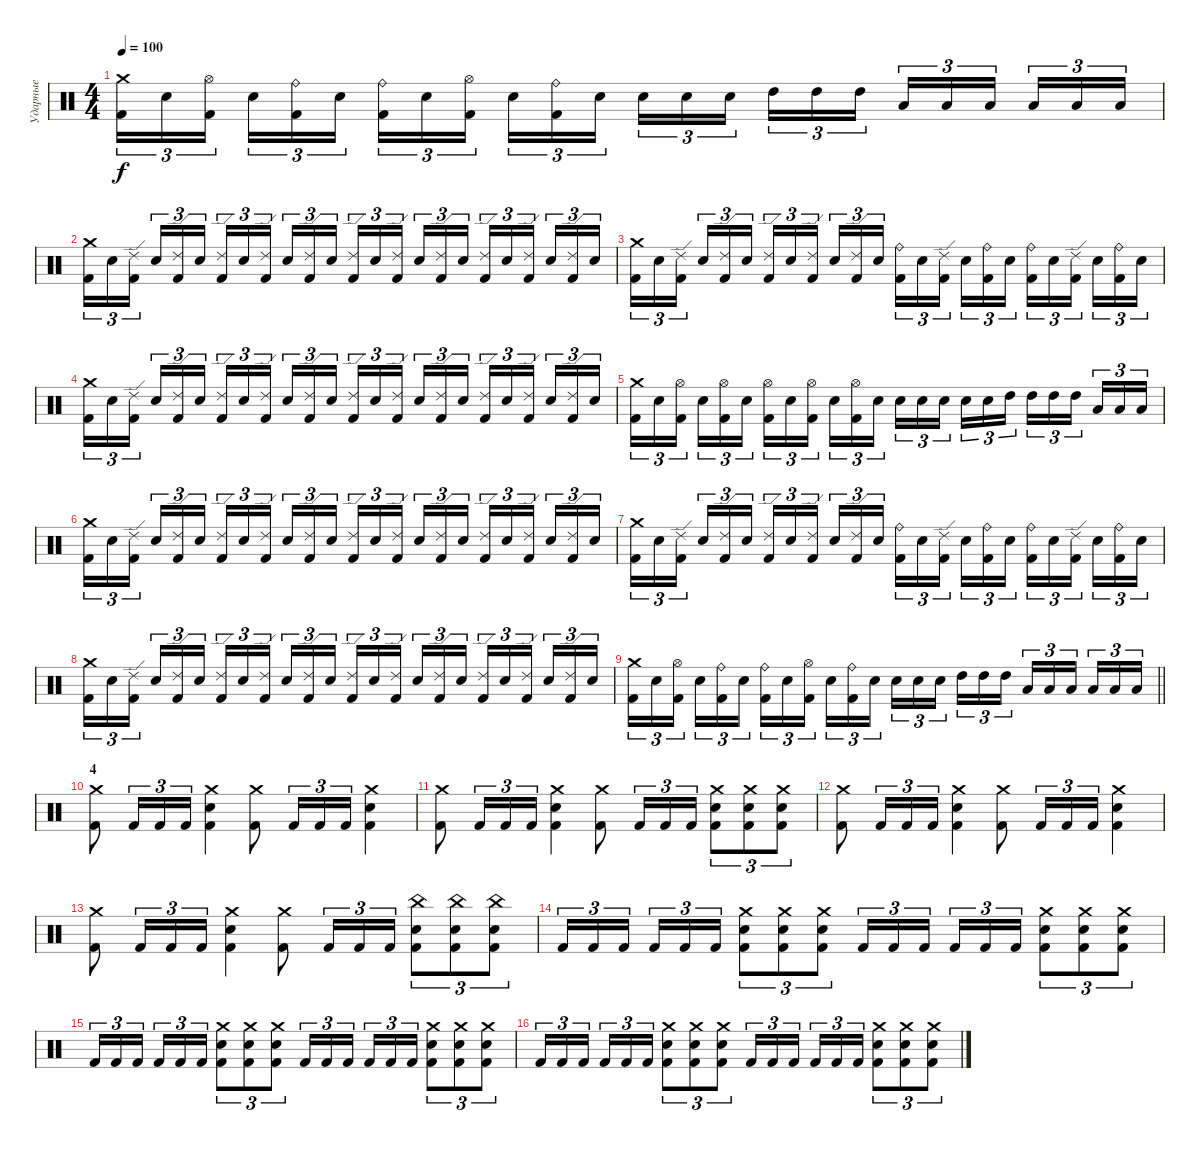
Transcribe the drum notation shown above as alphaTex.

\track ("Ударные" "Ударные") {instrument percussion}
\staff {score}
\articulation defaults
\ts (4 4)
\tempo 100
\clef neutral
\ks c
("Crash medium (hit)" "Kick (hit) 2").16{tu (3 2) dy f} "Electric Snare (hit)".16{tu (3 2)} ("Hi-Hat (open)" "Kick (hit) 2").16{tu (3 2) beam splitsecondary} "Electric Snare (hit)".16{tu (3 2)} ("Ride (bell)" "Kick (hit) 2").16{tu (3 2)} "Electric Snare (hit)".16{tu (3 2)} ("Ride (bell)" "Kick (hit) 2").16{tu (3 2)} "Electric Snare (hit)".16{tu (3 2)} ("Hi-Hat (open)" "Kick (hit) 2").16{tu (3 2) beam splitsecondary} "Electric Snare (hit)".16{tu (3 2)} ("Ride (bell)" "Kick (hit) 2").16{tu (3 2)} "Electric Snare (hit)".16{tu (3 2)} "Electric Snare (hit)".16{tu (3 2)} "Electric Snare (hit)".16{tu (3 2)} "Electric Snare (hit)".16{tu (3 2) beam splitsecondary} "High Tom (hit)".16{tu (3 2)} "High Tom (hit)".16{tu (3 2)} "High Tom (hit)".16{tu (3 2)} "Low Tom (hit)".16{tu (3 2)} "Low Tom (hit)".16{tu (3 2)} "Low Tom (hit)".16{tu (3 2) beam splitsecondary} "Low Floor Tom (hit)".16{tu (3 2)} "Low Floor Tom (hit)".16{tu (3 2)} "Low Floor Tom (hit)".16{tu (3 2)} |
("Crash medium (hit)" "Kick (hit) 2").16{tu (3 2)} "Electric Snare (hit)".16{tu (3 2)} ("Ride (edge) 2" "Kick (hit) 2").16{tu (3 2) beam splitsecondary} "Electric Snare (hit)".16{tu (3 2)} ("Ride (edge) 2" "Kick (hit) 2").16{tu (3 2)} "Electric Snare (hit)".16{tu (3 2)} ("Ride (edge) 2" "Kick (hit) 2").16{tu (3 2)} "Electric Snare (hit)".16{tu (3 2)} ("Ride (edge) 2" "Kick (hit) 2").16{tu (3 2) beam splitsecondary} "Electric Snare (hit)".16{tu (3 2)} ("Ride (edge) 2" "Kick (hit) 2").16{tu (3 2)} "Electric Snare (hit)".16{tu (3 2)} ("Ride (edge) 2" "Kick (hit) 2").16{tu (3 2)} "Electric Snare (hit)".16{tu (3 2)} ("Ride (edge) 2" "Kick (hit) 2").16{tu (3 2) beam splitsecondary} "Electric Snare (hit)".16{tu (3 2)} ("Ride (edge) 2" "Kick (hit) 2").16{tu (3 2)} "Electric Snare (hit)".16{tu (3 2)} ("Ride (edge) 2" "Kick (hit) 2").16{tu (3 2)} "Electric Snare (hit)".16{tu (3 2)} ("Ride (edge) 2" "Kick (hit) 2").16{tu (3 2) beam splitsecondary} "Electric Snare (hit)".16{tu (3 2)} ("Ride (edge) 2" "Kick (hit) 2").16{tu (3 2)} "Electric Snare (hit)".16{tu (3 2)} |
("Crash medium (hit)" "Kick (hit) 2").16{tu (3 2)} "Electric Snare (hit)".16{tu (3 2)} ("Ride (edge) 2" "Kick (hit) 2").16{tu (3 2) beam splitsecondary} "Electric Snare (hit)".16{tu (3 2)} ("Ride (edge) 2" "Kick (hit) 2").16{tu (3 2)} "Electric Snare (hit)".16{tu (3 2)} ("Ride (edge) 2" "Kick (hit) 2").16{tu (3 2)} "Electric Snare (hit)".16{tu (3 2)} ("Ride (edge) 2" "Kick (hit) 2").16{tu (3 2) beam splitsecondary} "Electric Snare (hit)".16{tu (3 2)} ("Ride (edge) 2" "Kick (hit) 2").16{tu (3 2)} "Electric Snare (hit)".16{tu (3 2)} ("Ride (bell)" "Kick (hit) 2").16{tu (3 2)} "Electric Snare (hit)".16{tu (3 2)} ("Ride (edge) 2" "Kick (hit) 2").16{tu (3 2) beam splitsecondary} "Electric Snare (hit)".16{tu (3 2)} ("Ride (bell)" "Kick (hit) 2").16{tu (3 2)} "Electric Snare (hit)".16{tu (3 2)} ("Ride (bell)" "Kick (hit) 2").16{tu (3 2)} "Electric Snare (hit)".16{tu (3 2)} ("Ride (edge) 2" "Kick (hit) 2").16{tu (3 2) beam splitsecondary} "Electric Snare (hit)".16{tu (3 2)} ("Ride (bell)" "Kick (hit) 2").16{tu (3 2)} "Electric Snare (hit)".16{tu (3 2)} |
("Crash medium (hit)" "Kick (hit) 2").16{tu (3 2)} "Electric Snare (hit)".16{tu (3 2)} ("Ride (edge) 2" "Kick (hit) 2").16{tu (3 2) beam splitsecondary} "Electric Snare (hit)".16{tu (3 2)} ("Ride (edge) 2" "Kick (hit) 2").16{tu (3 2)} "Electric Snare (hit)".16{tu (3 2)} ("Ride (edge) 2" "Kick (hit) 2").16{tu (3 2)} "Electric Snare (hit)".16{tu (3 2)} ("Ride (edge) 2" "Kick (hit) 2").16{tu (3 2) beam splitsecondary} "Electric Snare (hit)".16{tu (3 2)} ("Ride (edge) 2" "Kick (hit) 2").16{tu (3 2)} "Electric Snare (hit)".16{tu (3 2)} ("Ride (edge) 2" "Kick (hit) 2").16{tu (3 2)} "Electric Snare (hit)".16{tu (3 2)} ("Ride (edge) 2" "Kick (hit) 2").16{tu (3 2) beam splitsecondary} "Electric Snare (hit)".16{tu (3 2)} ("Ride (edge) 2" "Kick (hit) 2").16{tu (3 2)} "Electric Snare (hit)".16{tu (3 2)} ("Ride (edge) 2" "Kick (hit) 2").16{tu (3 2)} "Electric Snare (hit)".16{tu (3 2)} ("Ride (edge) 2" "Kick (hit) 2").16{tu (3 2) beam splitsecondary} "Electric Snare (hit)".16{tu (3 2)} ("Ride (edge) 2" "Kick (hit) 2").16{tu (3 2)} "Electric Snare (hit)".16{tu (3 2)} |
("Crash medium (hit)" "Kick (hit) 2").16{tu (3 2)} "Electric Snare (hit)".16{tu (3 2)} ("Hi-Hat (open)" "Kick (hit) 2").16{tu (3 2) beam splitsecondary} "Electric Snare (hit)".16{tu (3 2)} ("Hi-Hat (open)" "Kick (hit) 2").16{tu (3 2)} "Electric Snare (hit)".16{tu (3 2)} ("Hi-Hat (open)" "Kick (hit) 2").16{tu (3 2)} "Electric Snare (hit)".16{tu (3 2)} ("Hi-Hat (open)" "Kick (hit) 2").16{tu (3 2) beam splitsecondary} "Electric Snare (hit)".16{tu (3 2)} ("Hi-Hat (open)" "Kick (hit) 2").16{tu (3 2)} "Electric Snare (hit)".16{tu (3 2)} "Electric Snare (hit)".16{tu (3 2)} "Electric Snare (hit)".16{tu (3 2)} "Electric Snare (hit)".16{tu (3 2) beam splitsecondary} "Electric Snare (hit)".16{tu (3 2)} "Electric Snare (hit)".16{tu (3 2)} "High Tom (hit)".16{tu (3 2)} "High Tom (hit)".16{tu (3 2)} "High Tom (hit)".16{tu (3 2)} "High Tom (hit)".16{tu (3 2) beam splitsecondary} "Low Tom (hit)".16{tu (3 2)} "Low Tom (hit)".16{tu (3 2)} "Low Tom (hit)".16{tu (3 2)} |
("Crash medium (hit)" "Kick (hit) 2").16{tu (3 2)} "Electric Snare (hit)".16{tu (3 2)} ("Ride (edge) 2" "Kick (hit) 2").16{tu (3 2) beam splitsecondary} "Electric Snare (hit)".16{tu (3 2)} ("Ride (edge) 2" "Kick (hit) 2").16{tu (3 2)} "Electric Snare (hit)".16{tu (3 2)} ("Ride (edge) 2" "Kick (hit) 2").16{tu (3 2)} "Electric Snare (hit)".16{tu (3 2)} ("Ride (edge) 2" "Kick (hit) 2").16{tu (3 2) beam splitsecondary} "Electric Snare (hit)".16{tu (3 2)} ("Ride (edge) 2" "Kick (hit) 2").16{tu (3 2)} "Electric Snare (hit)".16{tu (3 2)} ("Ride (edge) 2" "Kick (hit) 2").16{tu (3 2)} "Electric Snare (hit)".16{tu (3 2)} ("Ride (edge) 2" "Kick (hit) 2").16{tu (3 2) beam splitsecondary} "Electric Snare (hit)".16{tu (3 2)} ("Ride (edge) 2" "Kick (hit) 2").16{tu (3 2)} "Electric Snare (hit)".16{tu (3 2)} ("Ride (edge) 2" "Kick (hit) 2").16{tu (3 2)} "Electric Snare (hit)".16{tu (3 2)} ("Ride (edge) 2" "Kick (hit) 2").16{tu (3 2) beam splitsecondary} "Electric Snare (hit)".16{tu (3 2)} ("Ride (edge) 2" "Kick (hit) 2").16{tu (3 2)} "Electric Snare (hit)".16{tu (3 2)} |
("Crash medium (hit)" "Kick (hit) 2").16{tu (3 2)} "Electric Snare (hit)".16{tu (3 2)} ("Ride (edge) 2" "Kick (hit) 2").16{tu (3 2) beam splitsecondary} "Electric Snare (hit)".16{tu (3 2)} ("Ride (edge) 2" "Kick (hit) 2").16{tu (3 2)} "Electric Snare (hit)".16{tu (3 2)} ("Ride (edge) 2" "Kick (hit) 2").16{tu (3 2)} "Electric Snare (hit)".16{tu (3 2)} ("Ride (edge) 2" "Kick (hit) 2").16{tu (3 2) beam splitsecondary} "Electric Snare (hit)".16{tu (3 2)} ("Ride (edge) 2" "Kick (hit) 2").16{tu (3 2)} "Electric Snare (hit)".16{tu (3 2)} ("Ride (bell)" "Kick (hit) 2").16{tu (3 2)} "Electric Snare (hit)".16{tu (3 2)} ("Ride (edge) 2" "Kick (hit) 2").16{tu (3 2) beam splitsecondary} "Electric Snare (hit)".16{tu (3 2)} ("Ride (bell)" "Kick (hit) 2").16{tu (3 2)} "Electric Snare (hit)".16{tu (3 2)} ("Ride (bell)" "Kick (hit) 2").16{tu (3 2)} "Electric Snare (hit)".16{tu (3 2)} ("Ride (edge) 2" "Kick (hit) 2").16{tu (3 2) beam splitsecondary} "Electric Snare (hit)".16{tu (3 2)} ("Ride (bell)" "Kick (hit) 2").16{tu (3 2)} "Electric Snare (hit)".16{tu (3 2)} |
("Crash medium (hit)" "Kick (hit) 2").16{tu (3 2)} "Electric Snare (hit)".16{tu (3 2)} ("Ride (edge) 2" "Kick (hit) 2").16{tu (3 2) beam splitsecondary} "Electric Snare (hit)".16{tu (3 2)} ("Ride (edge) 2" "Kick (hit) 2").16{tu (3 2)} "Electric Snare (hit)".16{tu (3 2)} ("Ride (edge) 2" "Kick (hit) 2").16{tu (3 2)} "Electric Snare (hit)".16{tu (3 2)} ("Ride (edge) 2" "Kick (hit) 2").16{tu (3 2) beam splitsecondary} "Electric Snare (hit)".16{tu (3 2)} ("Ride (edge) 2" "Kick (hit) 2").16{tu (3 2)} "Electric Snare (hit)".16{tu (3 2)} ("Ride (edge) 2" "Kick (hit) 2").16{tu (3 2)} "Electric Snare (hit)".16{tu (3 2)} ("Ride (edge) 2" "Kick (hit) 2").16{tu (3 2) beam splitsecondary} "Electric Snare (hit)".16{tu (3 2)} ("Ride (edge) 2" "Kick (hit) 2").16{tu (3 2)} "Electric Snare (hit)".16{tu (3 2)} ("Ride (edge) 2" "Kick (hit) 2").16{tu (3 2)} "Electric Snare (hit)".16{tu (3 2)} ("Ride (edge) 2" "Kick (hit) 2").16{tu (3 2) beam splitsecondary} "Electric Snare (hit)".16{tu (3 2)} ("Ride (edge) 2" "Kick (hit) 2").16{tu (3 2)} "Electric Snare (hit)".16{tu (3 2)} |
\barLineRight lightlight
("Crash medium (hit)" "Kick (hit) 2").16{tu (3 2)} "Electric Snare (hit)".16{tu (3 2)} ("Hi-Hat (open)" "Kick (hit) 2").16{tu (3 2) beam splitsecondary} "Electric Snare (hit)".16{tu (3 2)} ("Ride (bell)" "Kick (hit) 2").16{tu (3 2)} "Electric Snare (hit)".16{tu (3 2)} ("Ride (bell)" "Kick (hit) 2").16{tu (3 2)} "Electric Snare (hit)".16{tu (3 2)} ("Hi-Hat (open)" "Kick (hit) 2").16{tu (3 2) beam splitsecondary} "Electric Snare (hit)".16{tu (3 2)} ("Ride (bell)" "Kick (hit) 2").16{tu (3 2)} "Electric Snare (hit)".16{tu (3 2)} "Electric Snare (hit)".16{tu (3 2)} "Electric Snare (hit)".16{tu (3 2)} "Electric Snare (hit)".16{tu (3 2) beam splitsecondary} "High Tom (hit)".16{tu (3 2)} "High Tom (hit)".16{tu (3 2)} "High Tom (hit)".16{tu (3 2)} "Low Tom (hit)".16{tu (3 2)} "Low Tom (hit)".16{tu (3 2)} "Low Tom (hit)".16{tu (3 2) beam splitsecondary} "Low Floor Tom (hit)".16{tu (3 2)} "Low Floor Tom (hit)".16{tu (3 2)} "Low Floor Tom (hit)".16{tu (3 2)} |
\section ("" "4")
("Crash medium (hit)" "Kick (hit) 2").8 "Kick (hit) 2".16{tu (3 2)} "Kick (hit) 2".16{tu (3 2)} "Kick (hit) 2".16{tu (3 2)} ("Crash medium (hit)" "Electric Snare (hit)" "Kick (hit) 2").4 ("Crash medium (hit)" "Kick (hit) 2").8 "Kick (hit) 2".16{tu (3 2)} "Kick (hit) 2".16{tu (3 2)} "Kick (hit) 2".16{tu (3 2)} ("Crash medium (hit)" "Electric Snare (hit)" "Kick (hit) 2").4 |
("Crash medium (hit)" "Kick (hit) 2").8 "Kick (hit) 2".16{tu (3 2)} "Kick (hit) 2".16{tu (3 2)} "Kick (hit) 2".16{tu (3 2)} ("Crash medium (hit)" "Electric Snare (hit)" "Kick (hit) 2").4 ("Crash medium (hit)" "Kick (hit) 2").8 "Kick (hit) 2".16{tu (3 2)} "Kick (hit) 2".16{tu (3 2)} "Kick (hit) 2".16{tu (3 2)} ("Crash medium (hit)" "Electric Snare (hit)" "Kick (hit) 2").8{tu (3 2)} ("Crash medium (hit)" "Electric Snare (hit)" "Kick (hit) 2").8{tu (3 2)} ("Crash medium (hit)" "Electric Snare (hit)" "Kick (hit) 2").8{tu (3 2)} |
("Crash medium (hit)" "Kick (hit) 2").8 "Kick (hit) 2".16{tu (3 2)} "Kick (hit) 2".16{tu (3 2)} "Kick (hit) 2".16{tu (3 2)} ("Crash medium (hit)" "Electric Snare (hit)" "Kick (hit) 2").4 ("Crash medium (hit)" "Kick (hit) 2").8 "Kick (hit) 2".16{tu (3 2)} "Kick (hit) 2".16{tu (3 2)} "Kick (hit) 2".16{tu (3 2)} ("Crash medium (hit)" "Electric Snare (hit)" "Kick (hit) 2").4 |
("Crash medium (hit)" "Kick (hit) 2").8 "Kick (hit) 2".16{tu (3 2)} "Kick (hit) 2".16{tu (3 2)} "Kick (hit) 2".16{tu (3 2)} ("Crash medium (hit)" "Electric Snare (hit)" "Kick (hit) 2").4 ("Crash medium (hit)" "Kick (hit) 2").8 "Kick (hit) 2".16{tu (3 2)} "Kick (hit) 2".16{tu (3 2)} "Kick (hit) 2".16{tu (3 2)} ("China (hit)" "Electric Snare (hit)" "Kick (hit) 2").8{tu (3 2)} ("China (hit)" "Electric Snare (hit)" "Kick (hit) 2").8{tu (3 2)} ("China (hit)" "Electric Snare (hit)" "Kick (hit) 2").8{tu (3 2)} |
"Kick (hit) 2".16{tu (3 2)} "Kick (hit) 2".16{tu (3 2)} "Kick (hit) 2".16{tu (3 2) beam splitsecondary} "Kick (hit) 2".16{tu (3 2)} "Kick (hit) 2".16{tu (3 2)} "Kick (hit) 2".16{tu (3 2)} ("Crash medium (hit)" "Electric Snare (hit)" "Kick (hit) 2").8{tu (3 2)} ("Crash medium (hit)" "Electric Snare (hit)" "Kick (hit) 2").8{tu (3 2)} ("Crash medium (hit)" "Electric Snare (hit)" "Kick (hit) 2").8{tu (3 2)} "Kick (hit) 2".16{tu (3 2)} "Kick (hit) 2".16{tu (3 2)} "Kick (hit) 2".16{tu (3 2) beam splitsecondary} "Kick (hit) 2".16{tu (3 2)} "Kick (hit) 2".16{tu (3 2)} "Kick (hit) 2".16{tu (3 2)} ("Crash medium (hit)" "Electric Snare (hit)" "Kick (hit) 2").8{tu (3 2)} ("Crash medium (hit)" "Electric Snare (hit)" "Kick (hit) 2").8{tu (3 2)} ("Crash medium (hit)" "Electric Snare (hit)" "Kick (hit) 2").8{tu (3 2)} |
"Kick (hit) 2".16{tu (3 2)} "Kick (hit) 2".16{tu (3 2)} "Kick (hit) 2".16{tu (3 2) beam splitsecondary} "Kick (hit) 2".16{tu (3 2)} "Kick (hit) 2".16{tu (3 2)} "Kick (hit) 2".16{tu (3 2)} ("Crash medium (hit)" "Electric Snare (hit)" "Kick (hit) 2").8{tu (3 2)} ("Crash medium (hit)" "Electric Snare (hit)" "Kick (hit) 2").8{tu (3 2)} ("Crash medium (hit)" "Electric Snare (hit)" "Kick (hit) 2").8{tu (3 2)} "Kick (hit) 2".16{tu (3 2)} "Kick (hit) 2".16{tu (3 2)} "Kick (hit) 2".16{tu (3 2) beam splitsecondary} "Kick (hit) 2".16{tu (3 2)} "Kick (hit) 2".16{tu (3 2)} "Kick (hit) 2".16{tu (3 2)} ("Crash medium (hit)" "Electric Snare (hit)" "Kick (hit) 2").8{tu (3 2)} ("Crash medium (hit)" "Electric Snare (hit)" "Kick (hit) 2").8{tu (3 2)} ("Crash medium (hit)" "Electric Snare (hit)" "Kick (hit) 2").8{tu (3 2)} |
"Kick (hit) 2".16{tu (3 2)} "Kick (hit) 2".16{tu (3 2)} "Kick (hit) 2".16{tu (3 2) beam splitsecondary} "Kick (hit) 2".16{tu (3 2)} "Kick (hit) 2".16{tu (3 2)} "Kick (hit) 2".16{tu (3 2)} ("Crash medium (hit)" "Electric Snare (hit)" "Kick (hit) 2").8{tu (3 2)} ("Crash medium (hit)" "Electric Snare (hit)" "Kick (hit) 2").8{tu (3 2)} ("Crash medium (hit)" "Electric Snare (hit)" "Kick (hit) 2").8{tu (3 2)} "Kick (hit) 2".16{tu (3 2)} "Kick (hit) 2".16{tu (3 2)} "Kick (hit) 2".16{tu (3 2) beam splitsecondary} "Kick (hit) 2".16{tu (3 2)} "Kick (hit) 2".16{tu (3 2)} "Kick (hit) 2".16{tu (3 2)} ("Crash medium (hit)" "Electric Snare (hit)" "Kick (hit) 2").8{tu (3 2)} ("Crash medium (hit)" "Electric Snare (hit)" "Kick (hit) 2").8{tu (3 2)} ("Crash medium (hit)" "Electric Snare (hit)" "Kick (hit) 2").8{tu (3 2)}
